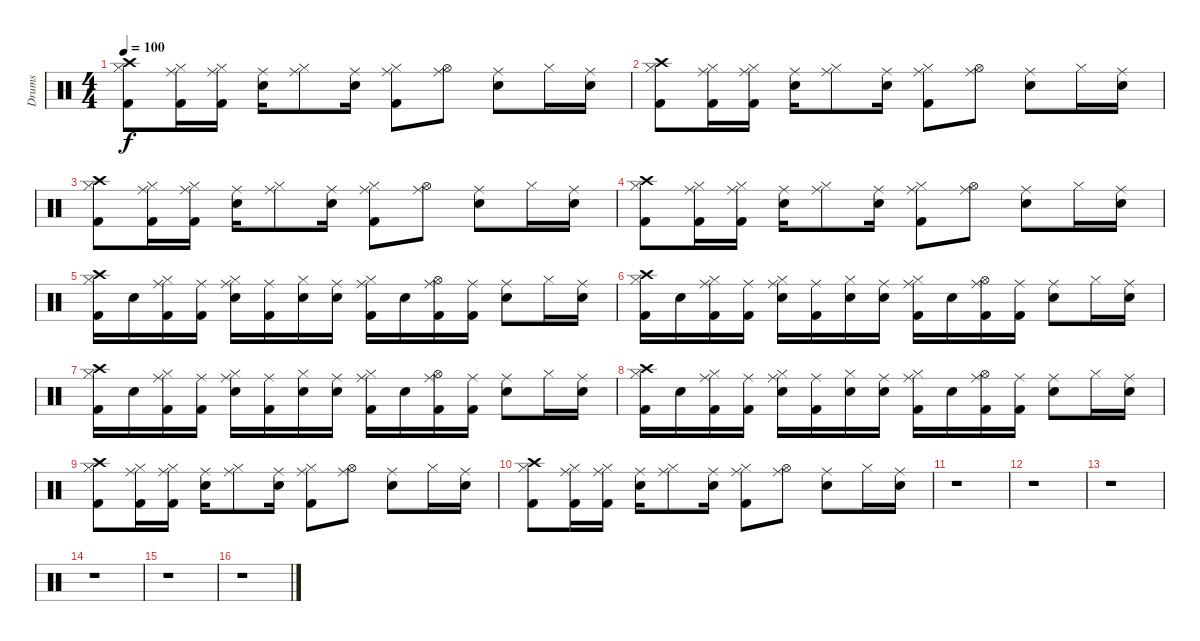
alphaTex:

\track ("Drums" "Drums") {instrument percussion}
\staff {score}
\articulation defaults
\ts (4 4)
\tempo 100
\clef neutral
\ks c
("Crash high (hit)" "Hi-Hat (closed)" "Kick (hit) 2").8{dy f} ("Ride (middle)" "Hi-Hat (closed)" "Kick (hit) 2").16 ("Ride (middle)" "Hi-Hat (closed)" "Kick (hit) 2").16 ("Ride (middle)" "Electric Snare (hit)").16 ("Ride (middle)" "Hi-Hat (closed)").8 ("Ride (middle)" "Electric Snare (hit)").16 ("Ride (middle)" "Hi-Hat (closed)" "Kick (hit) 2").8 ("Ride (middle)" "Hi-Hat (open)").8 ("Ride (middle)" "Electric Snare (hit)").8 "Hi-Hat (closed)".16 ("Ride (middle)" "Electric Snare (hit)").16 |
("Crash high (hit)" "Hi-Hat (closed)" "Kick (hit) 2").8 ("Ride (middle)" "Hi-Hat (closed)" "Kick (hit) 2").16 ("Ride (middle)" "Hi-Hat (closed)" "Kick (hit) 2").16 ("Ride (middle)" "Electric Snare (hit)").16 ("Ride (middle)" "Hi-Hat (closed)").8 ("Ride (middle)" "Electric Snare (hit)").16 ("Ride (middle)" "Hi-Hat (closed)" "Kick (hit) 2").8 ("Ride (middle)" "Hi-Hat (open)").8 ("Ride (middle)" "Electric Snare (hit)").8 "Hi-Hat (closed)".16 ("Ride (middle)" "Electric Snare (hit)").16 |
("Crash high (hit)" "Hi-Hat (closed)" "Kick (hit) 2").8 ("Ride (middle)" "Hi-Hat (closed)" "Kick (hit) 2").16 ("Ride (middle)" "Hi-Hat (closed)" "Kick (hit) 2").16 ("Ride (middle)" "Electric Snare (hit)").16 ("Ride (middle)" "Hi-Hat (closed)").8 ("Ride (middle)" "Electric Snare (hit)").16 ("Ride (middle)" "Hi-Hat (closed)" "Kick (hit) 2").8 ("Ride (middle)" "Hi-Hat (open)").8 ("Ride (middle)" "Electric Snare (hit)").8 "Hi-Hat (closed)".16 ("Ride (middle)" "Electric Snare (hit)").16 |
("Crash high (hit)" "Hi-Hat (closed)" "Kick (hit) 2").8 ("Ride (middle)" "Hi-Hat (closed)" "Kick (hit) 2").16 ("Ride (middle)" "Hi-Hat (closed)" "Kick (hit) 2").16 ("Ride (middle)" "Electric Snare (hit)").16 ("Ride (middle)" "Hi-Hat (closed)").8 ("Ride (middle)" "Electric Snare (hit)").16 ("Ride (middle)" "Hi-Hat (closed)" "Kick (hit) 2").8 ("Ride (middle)" "Hi-Hat (open)").8 ("Ride (middle)" "Electric Snare (hit)").8 "Hi-Hat (closed)".16 ("Ride (middle)" "Electric Snare (hit)").16 |
("Crash high (hit)" "Hi-Hat (closed)" "Kick (hit) 2").16 "Electric Snare (hit)".16 ("Ride (middle)" "Hi-Hat (closed)" "Kick (hit) 2").16 ("Ride (middle)" "Kick (hit) 2").16 ("Ride (middle)" "Hi-Hat (closed)" "Electric Snare (hit)").16 ("Ride (middle)" "Kick (hit) 2").16 ("Hi-Hat (closed)" "Electric Snare (hit)").16 ("Ride (middle)" "Electric Snare (hit)").16 ("Ride (middle)" "Hi-Hat (closed)" "Kick (hit) 2").16 "Electric Snare (hit)".16 ("Ride (middle)" "Hi-Hat (open)" "Kick (hit) 2").16 ("Ride (middle)" "Kick (hit) 2").16 ("Ride (middle)" "Electric Snare (hit)").8 "Hi-Hat (closed)".16 ("Ride (middle)" "Electric Snare (hit)").16 |
("Crash high (hit)" "Hi-Hat (closed)" "Kick (hit) 2").16 "Electric Snare (hit)".16 ("Ride (middle)" "Hi-Hat (closed)" "Kick (hit) 2").16 ("Ride (middle)" "Kick (hit) 2").16 ("Ride (middle)" "Hi-Hat (closed)" "Electric Snare (hit)").16 ("Ride (middle)" "Kick (hit) 2").16 ("Hi-Hat (closed)" "Electric Snare (hit)").16 ("Ride (middle)" "Electric Snare (hit)").16 ("Ride (middle)" "Hi-Hat (closed)" "Kick (hit) 2").16 "Electric Snare (hit)".16 ("Ride (middle)" "Hi-Hat (open)" "Kick (hit) 2").16 ("Ride (middle)" "Kick (hit) 2").16 ("Ride (middle)" "Electric Snare (hit)").8 "Hi-Hat (closed)".16 ("Ride (middle)" "Electric Snare (hit)").16 |
("Crash high (hit)" "Hi-Hat (closed)" "Kick (hit) 2").16 "Electric Snare (hit)".16 ("Ride (middle)" "Hi-Hat (closed)" "Kick (hit) 2").16 ("Ride (middle)" "Kick (hit) 2").16 ("Ride (middle)" "Hi-Hat (closed)" "Electric Snare (hit)").16 ("Ride (middle)" "Kick (hit) 2").16 ("Hi-Hat (closed)" "Electric Snare (hit)").16 ("Ride (middle)" "Electric Snare (hit)").16 ("Ride (middle)" "Hi-Hat (closed)" "Kick (hit) 2").16 "Electric Snare (hit)".16 ("Ride (middle)" "Hi-Hat (open)" "Kick (hit) 2").16 ("Ride (middle)" "Kick (hit) 2").16 ("Ride (middle)" "Electric Snare (hit)").8 "Hi-Hat (closed)".16 ("Ride (middle)" "Electric Snare (hit)").16 |
("Crash high (hit)" "Hi-Hat (closed)" "Kick (hit) 2").16 "Electric Snare (hit)".16 ("Ride (middle)" "Hi-Hat (closed)" "Kick (hit) 2").16 ("Ride (middle)" "Kick (hit) 2").16 ("Ride (middle)" "Hi-Hat (closed)" "Electric Snare (hit)").16 ("Ride (middle)" "Kick (hit) 2").16 ("Hi-Hat (closed)" "Electric Snare (hit)").16 ("Ride (middle)" "Electric Snare (hit)").16 ("Ride (middle)" "Hi-Hat (closed)" "Kick (hit) 2").16 "Electric Snare (hit)".16 ("Ride (middle)" "Hi-Hat (open)" "Kick (hit) 2").16 ("Ride (middle)" "Kick (hit) 2").16 ("Ride (middle)" "Electric Snare (hit)").8 "Hi-Hat (closed)".16 ("Ride (middle)" "Electric Snare (hit)").16 |
("Crash high (hit)" "Hi-Hat (closed)" "Kick (hit) 2").8 ("Ride (middle)" "Hi-Hat (closed)" "Kick (hit) 2").16 ("Ride (middle)" "Hi-Hat (closed)" "Kick (hit) 2").16 ("Ride (middle)" "Electric Snare (hit)").16 ("Ride (middle)" "Hi-Hat (closed)").8 ("Ride (middle)" "Electric Snare (hit)").16 ("Ride (middle)" "Hi-Hat (closed)" "Kick (hit) 2").8 ("Ride (middle)" "Hi-Hat (open)").8 ("Ride (middle)" "Electric Snare (hit)").8 "Hi-Hat (closed)".16 ("Ride (middle)" "Electric Snare (hit)").16 |
("Crash high (hit)" "Hi-Hat (closed)" "Kick (hit) 2").8 ("Ride (middle)" "Hi-Hat (closed)" "Kick (hit) 2").16 ("Ride (middle)" "Hi-Hat (closed)" "Kick (hit) 2").16 ("Ride (middle)" "Electric Snare (hit)").16 ("Ride (middle)" "Hi-Hat (closed)").8 ("Ride (middle)" "Electric Snare (hit)").16 ("Ride (middle)" "Hi-Hat (closed)" "Kick (hit) 2").8 ("Ride (middle)" "Hi-Hat (open)").8 ("Ride (middle)" "Electric Snare (hit)").8 "Hi-Hat (closed)".16 ("Ride (middle)" "Electric Snare (hit)").16 |
r.1 |
r.1 |
r.1 |
r.1 |
r.1 |
r.1
